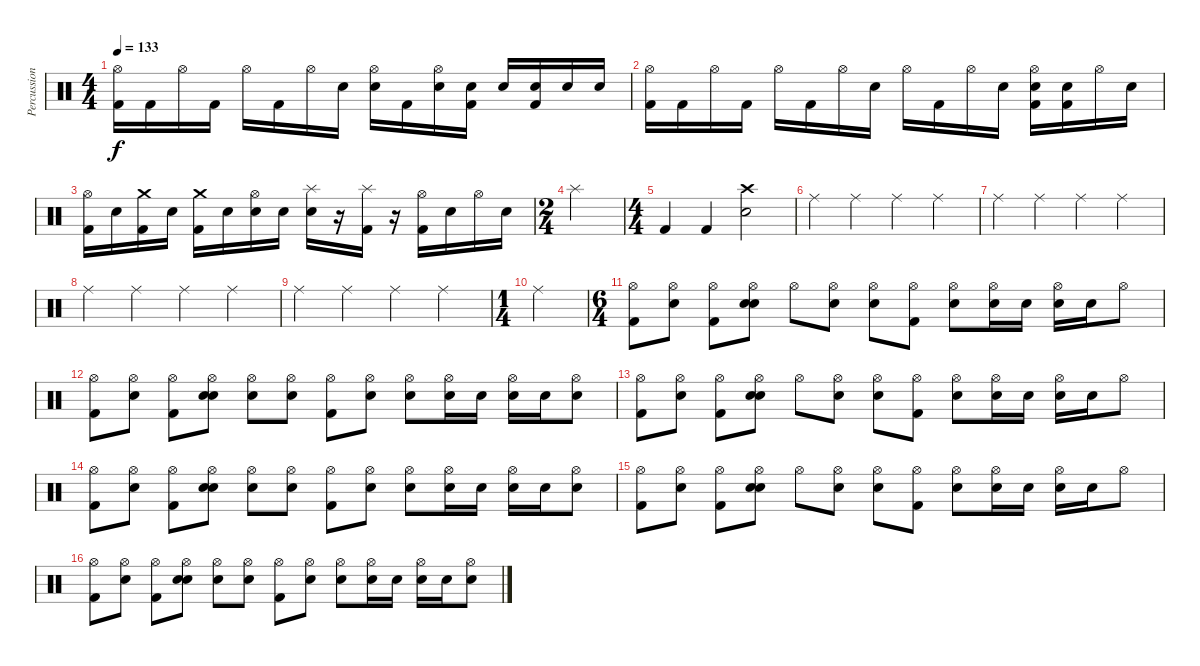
\track ("Percussion" "Percussion") {instrument percussion}
\staff {score}
\articulation defaults
\ts (4 4)
\tempo 133
\clef neutral
\ks c
("Hi-Hat (open)" "Kick (hit) 2").16{dy f} "Kick (hit) 2".16 "Hi-Hat (open)".16 "Kick (hit) 2".16 "Hi-Hat (open)".16 "Kick (hit) 2".16 "Hi-Hat (open)".16 "Snare (hit) 2"{x}.16 ("Hi-Hat (open)" "Snare (hit) 2").16 "Kick (hit) 2".16 ("Hi-Hat (open)" "Snare (hit) 2").16 ("Snare (hit) 2"{x} "Kick (hit) 2").16 "Snare (hit) 2".16 ("Snare (hit) 2" "Kick (hit) 2"{x}).16 "Snare (hit) 2".16 "Snare (hit) 2".16 |
("Hi-Hat (open)" "Kick (hit) 2").16 "Kick (hit) 2".16 "Hi-Hat (open)".16 "Kick (hit) 2".16 "Hi-Hat (open)".16 "Kick (hit) 2".16 "Hi-Hat (open)".16 "Snare (hit) 2"{x}.16 "Hi-Hat (open)".16 "Kick (hit) 2".16 "Hi-Hat (open)".16 "Snare (hit) 2".16 ("Hi-Hat (open)" "Snare (hit) 2" "Kick (hit) 2"{x}).16 ("Snare (hit) 2" "Kick (hit) 2"{x}).16 "Hi-Hat (open)".16 "Snare (hit) 2".16 |
("Hi-Hat (open)" "Kick (hit) 2").16 "Snare (hit) 2".16 ("Crash medium (hit)" "Kick (hit) 2").16 "Snare (hit)"{x}.16 ("Crash medium (hit)" "Kick (hit) 2").16 "Snare (hit) 2"{x}.16 ("Hi-Hat (open)" "Snare (hit) 2").16 "Snare (hit) 2"{x}.16 ("Splash (hit)" "Snare (hit) 2").16 r.16 ("Splash (hit)" "Kick (hit) 2").16 r.16 ("Hi-Hat (open)" "Kick (hit) 2").16 "Snare (hit) 2".16 "Hi-Hat (open)".16 "Snare (hit) 2"{x}.16 |
\ts (2 4)
"Splash (hit)".2 |
\ts (4 4)
"Kick (hit) 2".4 "Kick (hit) 2".4 ("Crash high (hit)" "Snare (hit) 2").2 |
"Ride (middle)".4 "Ride (middle)".4 "Ride (middle)".4 "Ride (middle)".4 |
"Ride (middle)".4 "Ride (middle)".4 "Ride (middle)".4 "Ride (middle)".4 |
"Ride (middle)".4 "Ride (middle)".4 "Ride (middle)".4 "Ride (middle)".4 |
"Ride (middle)".4 "Ride (middle)".4 "Ride (middle)".4 "Ride (middle)".4 |
\ts (1 4)
"Ride (middle)".4 |
\ts (6 4)
("Hi-Hat (open)" "Kick (hit) 2").8 ("Hi-Hat (open)" "Snare (hit)"{x}).8 ("Hi-Hat (open)" "Kick (hit) 2").8 ("Hi-Hat (open)" "Snare (hit) 2" "Snare (hit)"{x}).8 "Hi-Hat (open)".8 ("Hi-Hat (open)" "Snare (hit) 2").8 ("Hi-Hat (open)" "Snare (hit) 2").8 ("Hi-Hat (open)" "Kick (hit) 2").8 ("Hi-Hat (open)" "Snare (hit) 2").8 ("Hi-Hat (open)" "Snare (hit) 2").16 "Snare (hit) 2".16 ("Hi-Hat (open)" "Snare (hit) 2").16 "Snare (hit) 2".16 "Hi-Hat (open)".8 |
("Hi-Hat (open)" "Kick (hit) 2").8 ("Hi-Hat (open)" "Snare (hit)"{x}).8 ("Hi-Hat (open)" "Kick (hit) 2").8 ("Hi-Hat (open)" "Snare (hit) 2" "Snare (hit)"{x}).8 ("Hi-Hat (open)" "Snare (hit)"{x}).8 ("Hi-Hat (open)" "Snare (hit) 2").8 ("Hi-Hat (open)" "Kick (hit) 2").8 ("Hi-Hat (open)" "Snare (hit) 2").8 ("Hi-Hat (open)" "Snare (hit) 2").8 ("Hi-Hat (open)" "Snare (hit) 2").16 "Snare (hit) 2".16 ("Hi-Hat (open)" "Snare (hit) 2").16 "Snare (hit) 2".16 ("Hi-Hat (open)" "Snare (hit) 2").8 |
("Hi-Hat (open)" "Kick (hit) 2").8 ("Hi-Hat (open)" "Snare (hit)"{x}).8 ("Hi-Hat (open)" "Kick (hit) 2").8 ("Hi-Hat (open)" "Snare (hit) 2" "Snare (hit)"{x}).8 "Hi-Hat (open)".8 ("Hi-Hat (open)" "Snare (hit) 2").8 ("Hi-Hat (open)" "Snare (hit) 2").8 ("Hi-Hat (open)" "Kick (hit) 2").8 ("Hi-Hat (open)" "Snare (hit) 2").8 ("Hi-Hat (open)" "Snare (hit) 2").16 "Snare (hit) 2".16 ("Hi-Hat (open)" "Snare (hit) 2").16 "Snare (hit) 2".16 "Hi-Hat (open)".8 |
("Hi-Hat (open)" "Kick (hit) 2").8 ("Hi-Hat (open)" "Snare (hit)"{x}).8 ("Hi-Hat (open)" "Kick (hit) 2").8 ("Hi-Hat (open)" "Snare (hit) 2" "Snare (hit)"{x}).8 ("Hi-Hat (open)" "Snare (hit)"{x}).8 ("Hi-Hat (open)" "Snare (hit) 2").8 ("Hi-Hat (open)" "Kick (hit) 2").8 ("Hi-Hat (open)" "Snare (hit) 2").8 ("Hi-Hat (open)" "Snare (hit) 2").8 ("Hi-Hat (open)" "Snare (hit) 2").16 "Snare (hit) 2".16 ("Hi-Hat (open)" "Snare (hit) 2").16 "Snare (hit) 2".16 ("Hi-Hat (open)" "Snare (hit) 2").8 |
("Hi-Hat (open)" "Kick (hit) 2").8 ("Hi-Hat (open)" "Snare (hit)"{x}).8 ("Hi-Hat (open)" "Kick (hit) 2").8 ("Hi-Hat (open)" "Snare (hit) 2" "Snare (hit)"{x}).8 "Hi-Hat (open)".8 ("Hi-Hat (open)" "Snare (hit) 2").8 ("Hi-Hat (open)" "Snare (hit) 2").8 ("Hi-Hat (open)" "Kick (hit) 2").8 ("Hi-Hat (open)" "Snare (hit) 2").8 ("Hi-Hat (open)" "Snare (hit) 2").16 "Snare (hit) 2".16 ("Hi-Hat (open)" "Snare (hit) 2").16 "Snare (hit) 2".16 "Hi-Hat (open)".8 |
("Hi-Hat (open)" "Kick (hit) 2").8 ("Hi-Hat (open)" "Snare (hit)"{x}).8 ("Hi-Hat (open)" "Kick (hit) 2").8 ("Hi-Hat (open)" "Snare (hit) 2" "Snare (hit)"{x}).8 ("Hi-Hat (open)" "Snare (hit)"{x}).8 ("Hi-Hat (open)" "Snare (hit) 2").8 ("Hi-Hat (open)" "Kick (hit) 2").8 ("Hi-Hat (open)" "Snare (hit) 2").8 ("Hi-Hat (open)" "Snare (hit) 2").8 ("Hi-Hat (open)" "Snare (hit) 2").16 "Snare (hit) 2".16 ("Hi-Hat (open)" "Snare (hit) 2").16 "Snare (hit) 2".16 ("Hi-Hat (open)" "Snare (hit) 2").8
